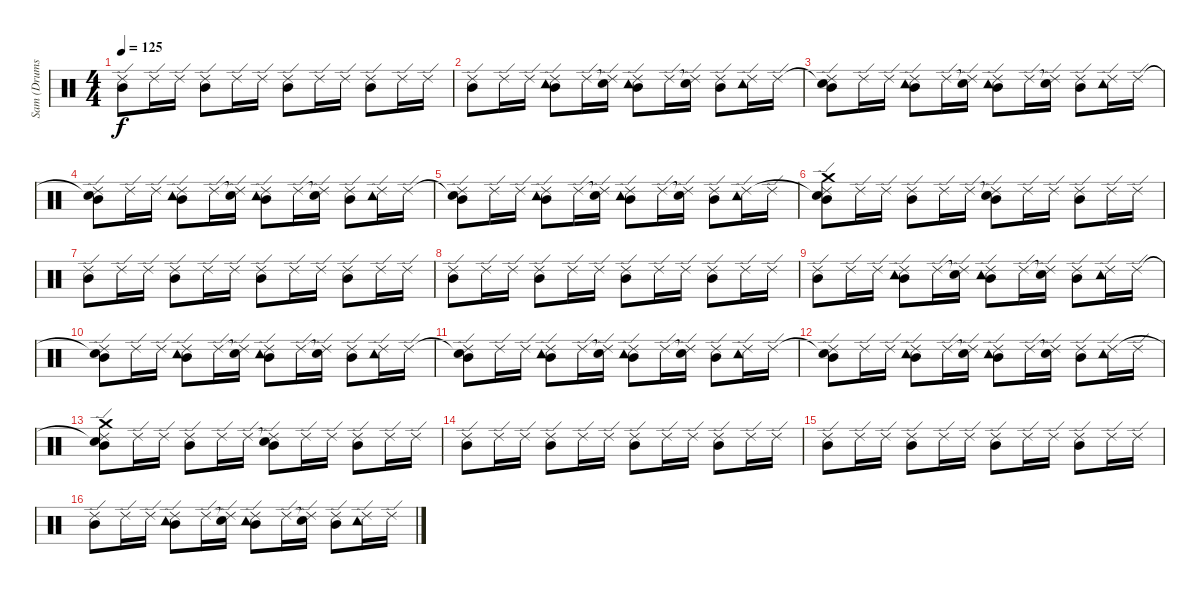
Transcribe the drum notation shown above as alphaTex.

\track ("Sam (Drums)" "Sam (Drums") {instrument percussion}
\staff {score}
\articulation defaults
\ts (4 4)
\tempo 125
\clef neutral
\ks c
("Ride (edge) 2" "Mid Tom (hit)").8{dy f} "Ride (edge) 2".16 "Ride (edge) 2".16 ("Ride (edge) 2" "Mid Tom (hit)").8 "Ride (edge) 2".16 "Ride (edge) 2".16 ("Ride (edge) 2" "Mid Tom (hit)").8 "Ride (edge) 2".16 "Ride (edge) 2".16 ("Ride (edge) 2" "Mid Tom (hit)").8 "Ride (edge) 2".16 "Ride (edge) 2".16 |
("Ride (edge) 2" "Mid Tom (hit)").8 "Ride (edge) 2".16 "Ride (edge) 2".16 ("Tambourine (hit)" "Ride (edge) 2" "Mid Tom (hit)").8 "Ride (edge) 2".16 ("Snare (hit)"{t} "Ride (edge) 2").16 ("Tambourine (hit)" "Ride (edge) 2" "Mid Tom (hit)").8 "Ride (edge) 2".16 ("Snare (hit)"{t} "Ride (edge) 2").16 ("Ride (edge) 2" "Mid Tom (hit)").8 ("Tambourine (hit)" "Ride (edge) 2").16 "Ride (edge) 2".16 |
("Snare (hit)"{t} "Ride (edge) 2" "Mid Tom (hit)").8 "Ride (edge) 2".16 "Ride (edge) 2".16 ("Tambourine (hit)" "Ride (edge) 2" "Mid Tom (hit)").8 "Ride (edge) 2".16 ("Snare (hit)"{t} "Ride (edge) 2").16 ("Tambourine (hit)" "Ride (edge) 2" "Mid Tom (hit)").8 "Ride (edge) 2".16 ("Snare (hit)"{t} "Ride (edge) 2").16 ("Ride (edge) 2" "Mid Tom (hit)").8 ("Tambourine (hit)" "Ride (edge) 2").16 "Ride (edge) 2".16 |
("Snare (hit)"{t} "Ride (edge) 2" "Mid Tom (hit)").8 "Ride (edge) 2".16 "Ride (edge) 2".16 ("Tambourine (hit)" "Ride (edge) 2" "Mid Tom (hit)").8 "Ride (edge) 2".16 ("Snare (hit)"{t} "Ride (edge) 2").16 ("Tambourine (hit)" "Ride (edge) 2" "Mid Tom (hit)").8 "Ride (edge) 2".16 ("Snare (hit)"{t} "Ride (edge) 2").16 ("Ride (edge) 2" "Mid Tom (hit)").8 ("Tambourine (hit)" "Ride (edge) 2").16 "Ride (edge) 2".16 |
("Snare (hit)"{t} "Ride (edge) 2" "Mid Tom (hit)").8 "Ride (edge) 2".16 "Ride (edge) 2".16 ("Tambourine (hit)" "Ride (edge) 2" "Mid Tom (hit)").8 "Ride (edge) 2".16 ("Snare (hit)"{t} "Ride (edge) 2").16 ("Tambourine (hit)" "Ride (edge) 2" "Mid Tom (hit)").8 "Ride (edge) 2".16 ("Snare (hit)"{t} "Ride (edge) 2").16 ("Ride (edge) 2" "Mid Tom (hit)").8 ("Tambourine (hit)" "Ride (edge) 2").16 "Ride (edge) 2".16 |
("Crash medium (hit)" "Snare (hit)"{t} "Ride (edge) 2" "Mid Tom (hit)").8 "Ride (edge) 2".16 "Ride (edge) 2".16 ("Ride (edge) 2" "Mid Tom (hit)").8 "Ride (edge) 2".16 "Ride (edge) 2".16 ("Snare (hit)"{t} "Ride (edge) 2" "Mid Tom (hit)").8 "Ride (edge) 2".16 "Ride (edge) 2".16 ("Ride (edge) 2" "Mid Tom (hit)").8 "Ride (edge) 2".16 "Ride (edge) 2".16 |
("Ride (edge) 2" "Mid Tom (hit)").8 "Ride (edge) 2".16 "Ride (edge) 2".16 ("Ride (edge) 2" "Mid Tom (hit)").8 "Ride (edge) 2".16 "Ride (edge) 2".16 ("Ride (edge) 2" "Mid Tom (hit)").8 "Ride (edge) 2".16 "Ride (edge) 2".16 ("Ride (edge) 2" "Mid Tom (hit)").8 "Ride (edge) 2".16 "Ride (edge) 2".16 |
("Ride (edge) 2" "Mid Tom (hit)").8 "Ride (edge) 2".16 "Ride (edge) 2".16 ("Ride (edge) 2" "Mid Tom (hit)").8 "Ride (edge) 2".16 "Ride (edge) 2".16 ("Ride (edge) 2" "Mid Tom (hit)").8 "Ride (edge) 2".16 "Ride (edge) 2".16 ("Ride (edge) 2" "Mid Tom (hit)").8 "Ride (edge) 2".16 "Ride (edge) 2".16 |
("Ride (edge) 2" "Mid Tom (hit)").8 "Ride (edge) 2".16 "Ride (edge) 2".16 ("Tambourine (hit)" "Ride (edge) 2" "Mid Tom (hit)").8 "Ride (edge) 2".16 ("Snare (hit)"{t} "Ride (edge) 2").16 ("Tambourine (hit)" "Ride (edge) 2" "Mid Tom (hit)").8 "Ride (edge) 2".16 ("Snare (hit)"{t} "Ride (edge) 2").16 ("Ride (edge) 2" "Mid Tom (hit)").8 ("Tambourine (hit)" "Ride (edge) 2").16 "Ride (edge) 2".16 |
("Snare (hit)"{t} "Ride (edge) 2" "Mid Tom (hit)").8 "Ride (edge) 2".16 "Ride (edge) 2".16 ("Tambourine (hit)" "Ride (edge) 2" "Mid Tom (hit)").8 "Ride (edge) 2".16 ("Snare (hit)"{t} "Ride (edge) 2").16 ("Tambourine (hit)" "Ride (edge) 2" "Mid Tom (hit)").8 "Ride (edge) 2".16 ("Snare (hit)"{t} "Ride (edge) 2").16 ("Ride (edge) 2" "Mid Tom (hit)").8 ("Tambourine (hit)" "Ride (edge) 2").16 "Ride (edge) 2".16 |
("Snare (hit)"{t} "Ride (edge) 2" "Mid Tom (hit)").8 "Ride (edge) 2".16 "Ride (edge) 2".16 ("Tambourine (hit)" "Ride (edge) 2" "Mid Tom (hit)").8 "Ride (edge) 2".16 ("Snare (hit)"{t} "Ride (edge) 2").16 ("Tambourine (hit)" "Ride (edge) 2" "Mid Tom (hit)").8 "Ride (edge) 2".16 ("Snare (hit)"{t} "Ride (edge) 2").16 ("Ride (edge) 2" "Mid Tom (hit)").8 ("Tambourine (hit)" "Ride (edge) 2").16 "Ride (edge) 2".16 |
("Snare (hit)"{t} "Ride (edge) 2" "Mid Tom (hit)").8 "Ride (edge) 2".16 "Ride (edge) 2".16 ("Tambourine (hit)" "Ride (edge) 2" "Mid Tom (hit)").8 "Ride (edge) 2".16 ("Snare (hit)"{t} "Ride (edge) 2").16 ("Tambourine (hit)" "Ride (edge) 2" "Mid Tom (hit)").8 "Ride (edge) 2".16 ("Snare (hit)"{t} "Ride (edge) 2").16 ("Ride (edge) 2" "Mid Tom (hit)").8 ("Tambourine (hit)" "Ride (edge) 2").16 "Ride (edge) 2".16 |
("Crash medium (hit)" "Snare (hit)"{t} "Ride (edge) 2" "Mid Tom (hit)").8 "Ride (edge) 2".16 "Ride (edge) 2".16 ("Ride (edge) 2" "Mid Tom (hit)").8 "Ride (edge) 2".16 "Ride (edge) 2".16 ("Snare (hit)"{t} "Ride (edge) 2" "Mid Tom (hit)").8 "Ride (edge) 2".16 "Ride (edge) 2".16 ("Ride (edge) 2" "Mid Tom (hit)").8 "Ride (edge) 2".16 "Ride (edge) 2".16 |
("Ride (edge) 2" "Mid Tom (hit)").8 "Ride (edge) 2".16 "Ride (edge) 2".16 ("Ride (edge) 2" "Mid Tom (hit)").8 "Ride (edge) 2".16 "Ride (edge) 2".16 ("Ride (edge) 2" "Mid Tom (hit)").8 "Ride (edge) 2".16 "Ride (edge) 2".16 ("Ride (edge) 2" "Mid Tom (hit)").8 "Ride (edge) 2".16 "Ride (edge) 2".16 |
("Ride (edge) 2" "Mid Tom (hit)").8 "Ride (edge) 2".16 "Ride (edge) 2".16 ("Ride (edge) 2" "Mid Tom (hit)").8 "Ride (edge) 2".16 "Ride (edge) 2".16 ("Ride (edge) 2" "Mid Tom (hit)").8 "Ride (edge) 2".16 "Ride (edge) 2".16 ("Ride (edge) 2" "Mid Tom (hit)").8 "Ride (edge) 2".16 "Ride (edge) 2".16 |
("Ride (edge) 2" "Mid Tom (hit)").8 "Ride (edge) 2".16 "Ride (edge) 2".16 ("Tambourine (hit)" "Ride (edge) 2" "Mid Tom (hit)").8 "Ride (edge) 2".16 ("Snare (hit)"{t} "Ride (edge) 2").16 ("Tambourine (hit)" "Ride (edge) 2" "Mid Tom (hit)").8 "Ride (edge) 2".16 ("Snare (hit)"{t} "Ride (edge) 2").16 ("Ride (edge) 2" "Mid Tom (hit)").8 ("Tambourine (hit)" "Ride (edge) 2").16 "Ride (edge) 2".16
